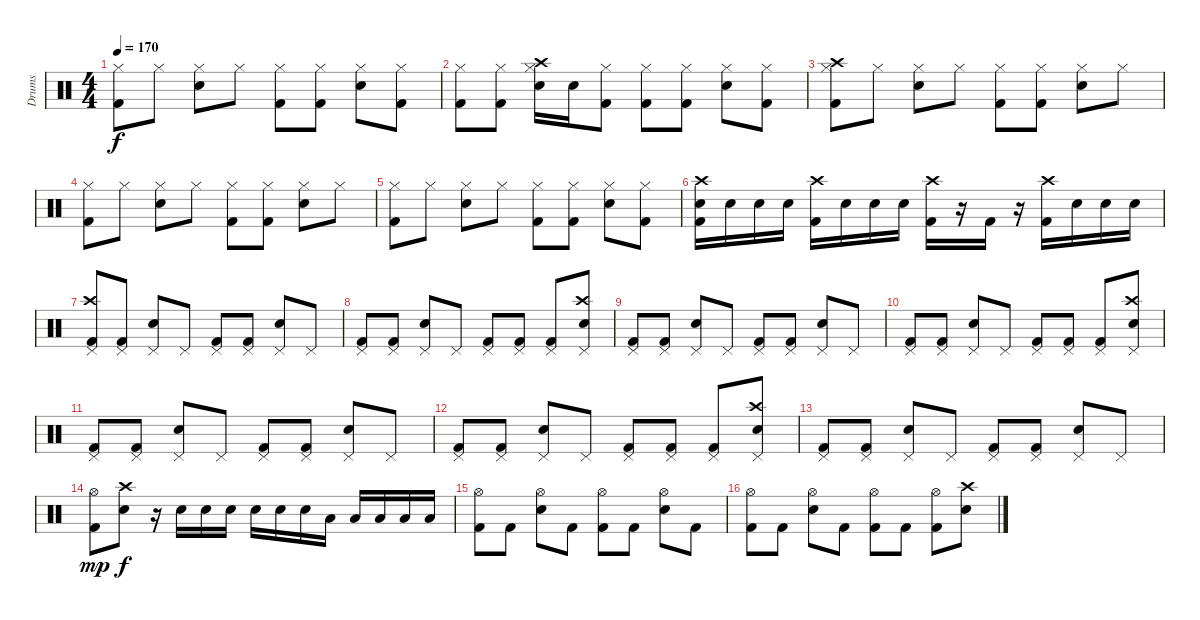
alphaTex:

\track ("Drums" "Drums") {instrument percussion}
\staff {score}
\articulation defaults
\ts (4 4)
\tempo 170
\clef neutral
\ks c
("Hi-Hat (closed)" "Kick (hit) 2").8{dy f} "Hi-Hat (closed)".8 ("Hi-Hat (closed)" "Electric Snare (hit)").8 "Hi-Hat (closed)".8 ("Hi-Hat (closed)" "Kick (hit) 2").8 ("Hi-Hat (closed)" "Kick (hit) 2").8 ("Hi-Hat (closed)" "Electric Snare (hit)").8 ("Hi-Hat (closed)" "Kick (hit) 2").8 |
("Hi-Hat (closed)" "Kick (hit) 2").8 ("Hi-Hat (closed)" "Kick (hit) 2").8 ("Crash high (hit)" "Hi-Hat (closed)" "Electric Snare (hit)").16 "Electric Snare (hit)".16 ("Hi-Hat (closed)" "Kick (hit) 2").8 ("Hi-Hat (closed)" "Kick (hit) 2").8 ("Hi-Hat (closed)" "Kick (hit) 2").8 ("Hi-Hat (closed)" "Electric Snare (hit)").8 ("Hi-Hat (closed)" "Kick (hit) 2").8 |
("Crash high (hit)" "Hi-Hat (closed)" "Kick (hit) 2").8 "Hi-Hat (closed)".8 ("Hi-Hat (closed)" "Electric Snare (hit)").8 "Hi-Hat (closed)".8 ("Hi-Hat (closed)" "Kick (hit) 2").8 ("Hi-Hat (closed)" "Kick (hit) 2").8 ("Hi-Hat (closed)" "Electric Snare (hit)").8 "Hi-Hat (closed)".8 |
("Hi-Hat (closed)" "Kick (hit) 2").8 "Hi-Hat (closed)".8 ("Hi-Hat (closed)" "Electric Snare (hit)").8 "Hi-Hat (closed)".8 ("Hi-Hat (closed)" "Kick (hit) 2").8 ("Hi-Hat (closed)" "Kick (hit) 2").8 ("Hi-Hat (closed)" "Electric Snare (hit)").8 "Hi-Hat (closed)".8 |
("Hi-Hat (closed)" "Kick (hit) 2").8 "Hi-Hat (closed)".8 ("Hi-Hat (closed)" "Electric Snare (hit)").8 "Hi-Hat (closed)".8 ("Hi-Hat (closed)" "Kick (hit) 2").8 ("Hi-Hat (closed)" "Kick (hit) 2").8 ("Hi-Hat (closed)" "Electric Snare (hit)").8 ("Hi-Hat (closed)" "Kick (hit) 2").8 |
("Crash high (hit)" "Electric Snare (hit)" "Kick (hit) 2").16 "Electric Snare (hit)".16 "Electric Snare (hit)".16 "Electric Snare (hit)".16 ("Crash high (hit)" "Kick (hit) 2").16 "Electric Snare (hit)".16 "Electric Snare (hit)".16 "Electric Snare (hit)".16 ("Crash high (hit)" "Kick (hit) 2").16 r.16 "Kick (hit) 2".16 r.16 ("Crash high (hit)" "Kick (hit) 2").16 "Electric Snare (hit)".16 "Electric Snare (hit)".16 "Electric Snare (hit)".16 |
("Crash high (hit)" "Pedal Hi-Hat (hit)" "Kick (hit) 2").8 ("Pedal Hi-Hat (hit)" "Kick (hit) 2").8 ("Pedal Hi-Hat (hit)" "Electric Snare (hit)").8 "Pedal Hi-Hat (hit)".8 ("Pedal Hi-Hat (hit)" "Kick (hit) 2").8 ("Pedal Hi-Hat (hit)" "Kick (hit) 2").8 ("Pedal Hi-Hat (hit)" "Electric Snare (hit)").8 "Pedal Hi-Hat (hit)".8 |
("Pedal Hi-Hat (hit)" "Kick (hit) 2").8 ("Pedal Hi-Hat (hit)" "Kick (hit) 2").8 ("Pedal Hi-Hat (hit)" "Electric Snare (hit)").8 "Pedal Hi-Hat (hit)".8 ("Pedal Hi-Hat (hit)" "Kick (hit) 2").8 ("Pedal Hi-Hat (hit)" "Kick (hit) 2").8 ("Pedal Hi-Hat (hit)" "Kick (hit) 2").8 ("Crash high (hit)" "Pedal Hi-Hat (hit)" "Electric Snare (hit)").8 |
("Pedal Hi-Hat (hit)" "Kick (hit) 2").8 ("Pedal Hi-Hat (hit)" "Kick (hit) 2").8 ("Pedal Hi-Hat (hit)" "Electric Snare (hit)").8 "Pedal Hi-Hat (hit)".8 ("Pedal Hi-Hat (hit)" "Kick (hit) 2").8 ("Pedal Hi-Hat (hit)" "Kick (hit) 2").8 ("Pedal Hi-Hat (hit)" "Electric Snare (hit)").8 "Pedal Hi-Hat (hit)".8 |
("Pedal Hi-Hat (hit)" "Kick (hit) 2").8 ("Pedal Hi-Hat (hit)" "Kick (hit) 2").8 ("Pedal Hi-Hat (hit)" "Electric Snare (hit)").8 "Pedal Hi-Hat (hit)".8 ("Pedal Hi-Hat (hit)" "Kick (hit) 2").8 ("Pedal Hi-Hat (hit)" "Kick (hit) 2").8 ("Pedal Hi-Hat (hit)" "Kick (hit) 2").8 ("Crash high (hit)" "Pedal Hi-Hat (hit)" "Electric Snare (hit)").8 |
("Pedal Hi-Hat (hit)" "Kick (hit) 2").8 ("Pedal Hi-Hat (hit)" "Kick (hit) 2").8 ("Pedal Hi-Hat (hit)" "Electric Snare (hit)").8 "Pedal Hi-Hat (hit)".8 ("Pedal Hi-Hat (hit)" "Kick (hit) 2").8 ("Pedal Hi-Hat (hit)" "Kick (hit) 2").8 ("Pedal Hi-Hat (hit)" "Electric Snare (hit)").8 "Pedal Hi-Hat (hit)".8 |
("Pedal Hi-Hat (hit)" "Kick (hit) 2").8 ("Pedal Hi-Hat (hit)" "Kick (hit) 2").8 ("Pedal Hi-Hat (hit)" "Electric Snare (hit)").8 "Pedal Hi-Hat (hit)".8 ("Pedal Hi-Hat (hit)" "Kick (hit) 2").8 ("Pedal Hi-Hat (hit)" "Kick (hit) 2").8 ("Pedal Hi-Hat (hit)" "Kick (hit) 2").8 ("Crash high (hit)" "Pedal Hi-Hat (hit)" "Electric Snare (hit)").8 |
("Pedal Hi-Hat (hit)" "Kick (hit) 2").8 ("Pedal Hi-Hat (hit)" "Kick (hit) 2").8 ("Pedal Hi-Hat (hit)" "Electric Snare (hit)").8 "Pedal Hi-Hat (hit)".8 ("Pedal Hi-Hat (hit)" "Kick (hit) 2").8 ("Pedal Hi-Hat (hit)" "Kick (hit) 2").8 ("Pedal Hi-Hat (hit)" "Electric Snare (hit)").8 "Pedal Hi-Hat (hit)".8 |
("Hi-Hat (open)" "Kick (hit) 2").8{dy mp} ("Crash high (hit)" "Snare (hit) 2").8{dy f} r.16 "Snare (hit) 2".16 "Snare (hit) 2".16 "Snare (hit) 2".16 "Snare (hit) 2".16 "Snare (hit) 2".16 "Snare (hit) 2".16 "Low Floor Tom (hit)".16 "Low Floor Tom (hit)".16 "Low Floor Tom (hit)".16 "Low Floor Tom (hit)".16 "Low Floor Tom (hit)".16 |
("Hi-Hat (open)" "Kick (hit) 2").8 "Kick (hit) 2".8 ("Hi-Hat (open)" "Electric Snare (hit)").8 "Kick (hit) 2".8 ("Hi-Hat (open)" "Kick (hit) 2").8 "Kick (hit) 2".8 ("Hi-Hat (open)" "Electric Snare (hit)").8 "Kick (hit) 2".8 |
("Hi-Hat (open)" "Kick (hit) 2").8 "Kick (hit) 2".8 ("Hi-Hat (open)" "Electric Snare (hit)").8 "Kick (hit) 2".8 ("Hi-Hat (open)" "Kick (hit) 2").8 "Kick (hit) 2".8 ("Hi-Hat (open)" "Kick (hit) 2").8 ("Crash high (hit)" "Electric Snare (hit)").8
